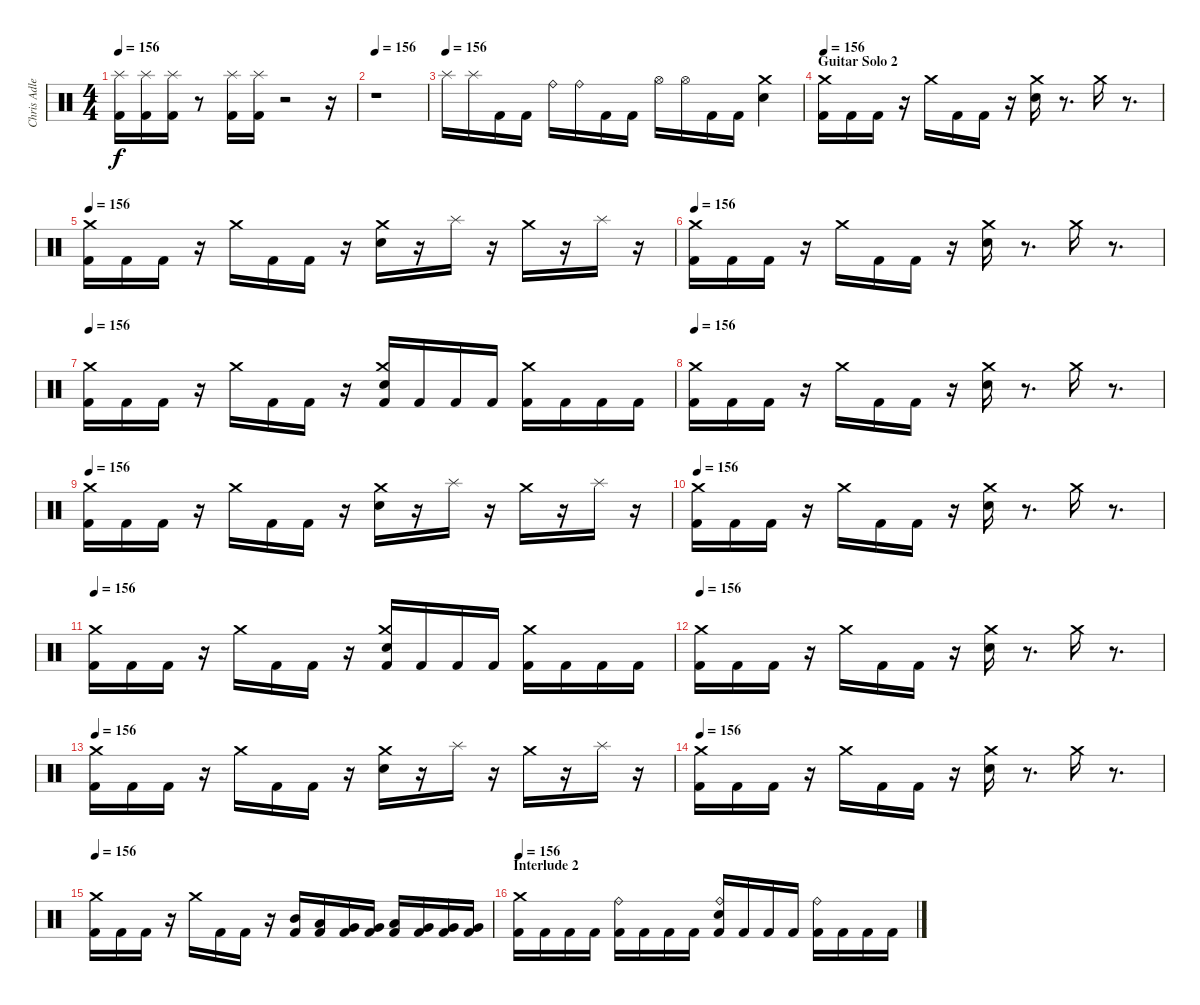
\track ("Chris Adler" "Chris Adle") {instrument percussion}
\staff {score}
\articulation defaults
\ts (4 4)
\tempo 156
\clef neutral
\ks c
("Splash (hit)" "Kick (hit) 2").16{dy f} ("Splash (hit)" "Kick (hit) 2").16 ("Splash (hit)" "Kick (hit) 2").16 r.8 ("Splash (hit)" "Kick (hit) 2").16 ("Splash (hit)" "Kick (hit) 2").16 r.2 r.16 |
\tempo 156
r.1 |
\tempo (156)
"Splash (hit)".16 "Splash (hit)".16 "Kick (hit) 2".16 "Kick (hit) 2".16 "Ride (bell)".16 "Ride (bell)".16 "Kick (hit) 2".16 "Kick (hit) 2".16 "Hi-Hat (open)".16 "Hi-Hat (open)".16 "Kick (hit) 2".16 "Kick (hit) 2".16 ("Crash medium (hit)" "Snare (hit) 2").4 |
\section ("" "Guitar Solo 2")
\tempo 156
("Crash medium (hit)" "Kick (hit) 2").16 "Kick (hit) 2".16 "Kick (hit) 2".16 r.16 "Crash medium (hit)".16 "Kick (hit) 2".16 "Kick (hit) 2".16 r.16 ("Crash medium (hit)" "Snare (hit) 2").16 r.8{d} "Crash medium (hit)".16 r.8{d} |
\tempo 156
("Crash medium (hit)" "Kick (hit) 2").16 "Kick (hit) 2".16 "Kick (hit) 2".16 r.16 "Crash medium (hit)".16 "Kick (hit) 2".16 "Kick (hit) 2".16 r.16 ("Crash medium (hit)" "Snare (hit) 2").16 r.16 "Splash (hit)".16 r.16 "Crash medium (hit)".16 r.16 "Splash (hit)".16 r.16 |
\tempo 156
("Crash medium (hit)" "Kick (hit) 2").16 "Kick (hit) 2".16 "Kick (hit) 2".16 r.16 "Crash medium (hit)".16 "Kick (hit) 2".16 "Kick (hit) 2".16 r.16 ("Crash medium (hit)" "Snare (hit) 2").16 r.8{d} "Crash medium (hit)".16 r.8{d} |
\tempo 156
("Crash medium (hit)" "Kick (hit) 2").16 "Kick (hit) 2".16 "Kick (hit) 2".16 r.16 "Crash medium (hit)".16 "Kick (hit) 2".16 "Kick (hit) 2".16 r.16 ("Crash medium (hit)" "Snare (hit) 2" "Kick (hit) 2").16 "Kick (hit) 2".16 "Kick (hit) 2".16 "Kick (hit) 2".16 ("Crash medium (hit)" "Kick (hit) 2").16 "Kick (hit) 2".16 "Kick (hit) 2".16 "Kick (hit) 2".16 |
\tempo 156
("Crash medium (hit)" "Kick (hit) 2").16 "Kick (hit) 2".16 "Kick (hit) 2".16 r.16 "Crash medium (hit)".16 "Kick (hit) 2".16 "Kick (hit) 2".16 r.16 ("Crash medium (hit)" "Snare (hit) 2").16 r.8{d} "Crash medium (hit)".16 r.8{d} |
\tempo 156
("Crash medium (hit)" "Kick (hit) 2").16 "Kick (hit) 2".16 "Kick (hit) 2".16 r.16 "Crash medium (hit)".16 "Kick (hit) 2".16 "Kick (hit) 2".16 r.16 ("Crash medium (hit)" "Snare (hit) 2").16 r.16 "Splash (hit)".16 r.16 "Crash medium (hit)".16 r.16 "Splash (hit)".16 r.16 |
\tempo 156
("Crash medium (hit)" "Kick (hit) 2").16 "Kick (hit) 2".16 "Kick (hit) 2".16 r.16 "Crash medium (hit)".16 "Kick (hit) 2".16 "Kick (hit) 2".16 r.16 ("Crash medium (hit)" "Snare (hit) 2").16 r.8{d} "Crash medium (hit)".16 r.8{d} |
\tempo 156
("Crash medium (hit)" "Kick (hit) 2").16 "Kick (hit) 2".16 "Kick (hit) 2".16 r.16 "Crash medium (hit)".16 "Kick (hit) 2".16 "Kick (hit) 2".16 r.16 ("Crash medium (hit)" "Snare (hit) 2" "Kick (hit) 2").16 "Kick (hit) 2".16 "Kick (hit) 2".16 "Kick (hit) 2".16 ("Crash medium (hit)" "Kick (hit) 2").16 "Kick (hit) 2".16 "Kick (hit) 2".16 "Kick (hit) 2".16 |
\tempo 156
("Crash medium (hit)" "Kick (hit) 2").16 "Kick (hit) 2".16 "Kick (hit) 2".16 r.16 "Crash medium (hit)".16 "Kick (hit) 2".16 "Kick (hit) 2".16 r.16 ("Crash medium (hit)" "Snare (hit) 2").16 r.8{d} "Crash medium (hit)".16 r.8{d} |
\tempo 156
("Crash medium (hit)" "Kick (hit) 2").16 "Kick (hit) 2".16 "Kick (hit) 2".16 r.16 "Crash medium (hit)".16 "Kick (hit) 2".16 "Kick (hit) 2".16 r.16 ("Crash medium (hit)" "Snare (hit) 2").16 r.16 "Splash (hit)".16 r.16 "Crash medium (hit)".16 r.16 "Splash (hit)".16 r.16 |
\tempo 156
("Crash medium (hit)" "Kick (hit) 2").16 "Kick (hit) 2".16 "Kick (hit) 2".16 r.16 "Crash medium (hit)".16 "Kick (hit) 2".16 "Kick (hit) 2".16 r.16 ("Crash medium (hit)" "Snare (hit) 2").16 r.8{d} "Crash medium (hit)".16 r.8{d} |
\tempo 156
("Crash medium (hit)" "Kick (hit) 2").16 "Kick (hit) 2".16 "Kick (hit) 2".16 r.16 "Crash medium (hit)".16 "Kick (hit) 2".16 "Kick (hit) 2".16 r.16 ("Mid Tom (hit)" "Kick (hit) 2").16 ("Low Tom (hit)" "Kick (hit) 2").16 ("Very Low Tom (hit)" "Kick (hit) 2").16 ("Very Low Tom (hit)" "Kick (hit) 2").16 ("Low Tom (hit)" "Kick (hit) 2").16 ("Very Low Tom (hit)" "Kick (hit) 2").16 ("Very Low Tom (hit)" "Kick (hit) 2").16 ("Very Low Tom (hit)" "Kick (hit) 2").16 |
\section ("" "Interlude 2")
\tempo 156
("Crash medium (hit)" "Kick (hit) 2").16 "Kick (hit) 2".16 "Kick (hit) 2".16 "Kick (hit) 2".16 ("Ride (bell)" "Kick (hit) 2").16 "Kick (hit) 2".16 "Kick (hit) 2".16 "Kick (hit) 2".16 ("Ride (bell)" "Snare (hit) 2" "Kick (hit) 2").16 "Kick (hit) 2".16 "Kick (hit) 2".16 "Kick (hit) 2".16 ("Ride (bell)" "Kick (hit) 2").16 "Kick (hit) 2".16 "Kick (hit) 2".16 "Kick (hit) 2".16
